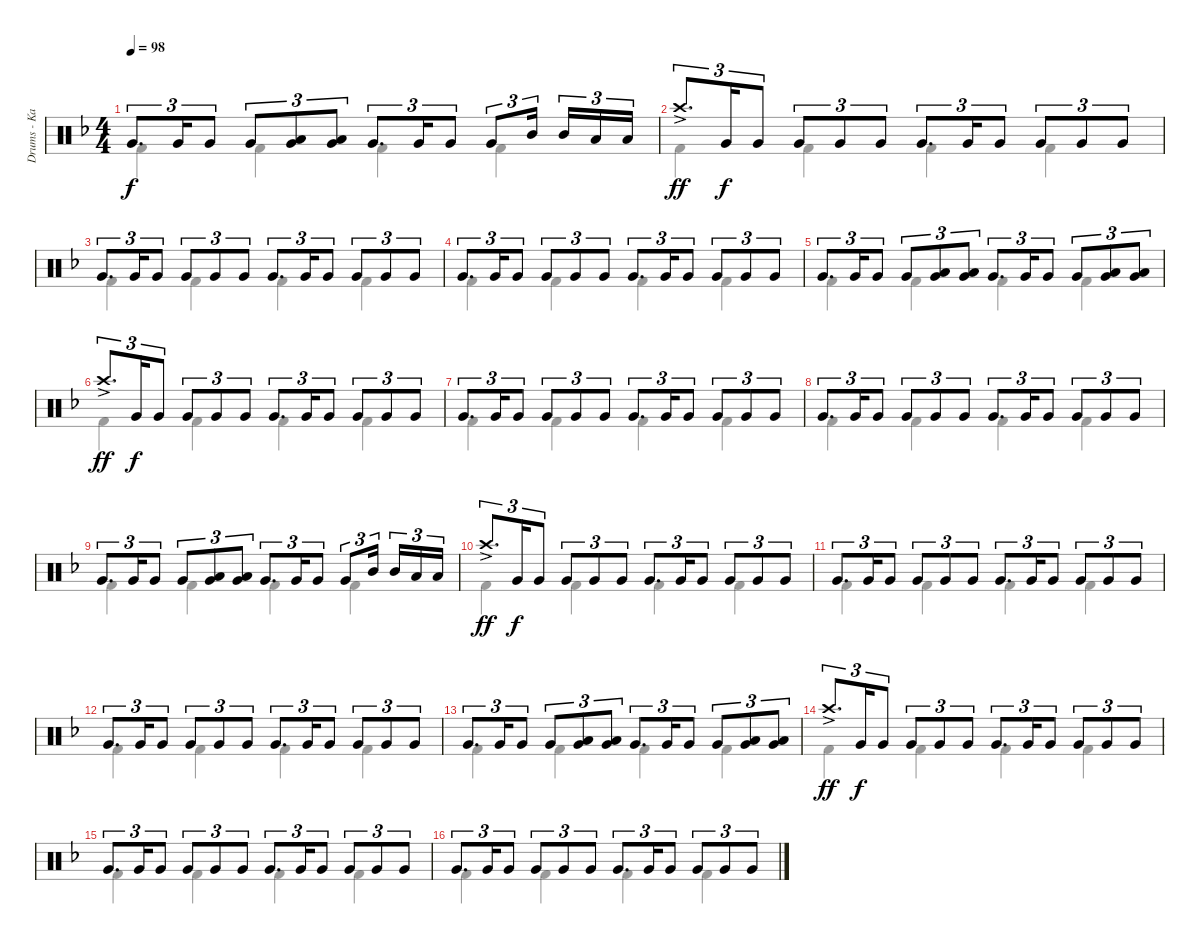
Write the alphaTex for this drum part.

\track ("Drums - Kai" "Drums - Ka") {instrument percussion}
\staff {score}
\articulation defaults
\voice
\ts (4 4)
\tempo 98
\clef neutral
\ks f "Very Low Tom (hit)".8{d tu (3 2) dy f} "Very Low Tom (hit)".16{tu (3 2)} "Very Low Tom (hit)".8{tu (3 2)} "Very Low Tom (hit)".8{tu (3 2)}
("Very Low Tom (hit)" "Low Floor Tom (hit)").8{tu (3 2)} ("Very Low Tom (hit)" "Low Floor Tom (hit)").8{tu (3 2)} "Very Low Tom (hit)".8{d tu (3 2)} "Very Low Tom (hit)".16{tu (3 2)} "Very Low Tom (hit)".8{tu (3 2)} "Very Low Tom (hit)".8{tu (3 2)} "Mid Tom (hit)".16{tu (3 2) beam splitsecondary} "Mid Tom (hit)".16{tu (3 2)} "Low Tom (hit)".16{tu (3 2)} "Low Tom (hit)".16{tu (3 2)} |
"Crash high (hit)"{ac}.8{d tu (3 2) dy ff} "Very Low Tom (hit)".16{tu (3 2) dy f} "Very Low Tom (hit)".8{tu (3 2)} "Very Low Tom (hit)".8{tu (3 2)} "Very Low Tom (hit)".8{tu (3 2)} "Very Low Tom (hit)".8{tu (3 2)} "Very Low Tom (hit)".8{d tu (3 2)} "Very Low Tom (hit)".16{tu (3 2)} "Very Low Tom (hit)".8{tu (3 2)} "Very Low Tom (hit)".8{tu (3 2)} "Very Low Tom (hit)".8{tu (3 2)} "Very Low Tom (hit)".8{tu (3 2)} |
"Very Low Tom (hit)".8{d tu (3 2)} "Very Low Tom (hit)".16{tu (3 2)} "Very Low Tom (hit)".8{tu (3 2)} "Very Low Tom (hit)".8{tu (3 2)} "Very Low Tom (hit)".8{tu (3 2)} "Very Low Tom (hit)".8{tu (3 2)} "Very Low Tom (hit)".8{d tu (3 2)} "Very Low Tom (hit)".16{tu (3 2)} "Very Low Tom (hit)".8{tu (3 2)} "Very Low Tom (hit)".8{tu (3 2)} "Very Low Tom (hit)".8{tu (3 2)} "Very Low Tom (hit)".8{tu (3 2)} |
"Very Low Tom (hit)".8{d tu (3 2)} "Very Low Tom (hit)".16{tu (3 2)} "Very Low Tom (hit)".8{tu (3 2)} "Very Low Tom (hit)".8{tu (3 2)} "Very Low Tom (hit)".8{tu (3 2)} "Very Low Tom (hit)".8{tu (3 2)} "Very Low Tom (hit)".8{d tu (3 2)} "Very Low Tom (hit)".16{tu (3 2)} "Very Low Tom (hit)".8{tu (3 2)} "Very Low Tom (hit)".8{tu (3 2)} "Very Low Tom (hit)".8{tu (3 2)} "Very Low Tom (hit)".8{tu (3 2)} |
"Very Low Tom (hit)".8{d tu (3 2)} "Very Low Tom (hit)".16{tu (3 2)} "Very Low Tom (hit)".8{tu (3 2)} "Very Low Tom (hit)".8{tu (3 2)} ("Very Low Tom (hit)" "Low Floor Tom (hit)").8{tu (3 2)} ("Very Low Tom (hit)" "Low Floor Tom (hit)").8{tu (3 2)} "Very Low Tom (hit)".8{d tu (3 2)} "Very Low Tom (hit)".16{tu (3 2)} "Very Low Tom (hit)".8{tu (3 2)} "Very Low Tom (hit)".8{tu (3 2)} ("Low Tom (hit)" "Very Low Tom (hit)").8{tu (3 2)} ("Low Tom (hit)" "Very Low Tom (hit)").8{tu (3 2)} |
"Crash high (hit)"{ac}.8{d tu (3 2) dy ff} "Very Low Tom (hit)".16{tu (3 2) dy f} "Very Low Tom (hit)".8{tu (3 2)} "Very Low Tom (hit)".8{tu (3 2)} "Very Low Tom (hit)".8{tu (3 2)} "Very Low Tom (hit)".8{tu (3 2)} "Very Low Tom (hit)".8{d tu (3 2)} "Very Low Tom (hit)".16{tu (3 2)} "Very Low Tom (hit)".8{tu (3 2)} "Very Low Tom (hit)".8{tu (3 2)} "Very Low Tom (hit)".8{tu (3 2)} "Very Low Tom (hit)".8{tu (3 2)} |
"Very Low Tom (hit)".8{d tu (3 2)} "Very Low Tom (hit)".16{tu (3 2)} "Very Low Tom (hit)".8{tu (3 2)} "Very Low Tom (hit)".8{tu (3 2)} "Very Low Tom (hit)".8{tu (3 2)} "Very Low Tom (hit)".8{tu (3 2)} "Very Low Tom (hit)".8{d tu (3 2)} "Very Low Tom (hit)".16{tu (3 2)} "Very Low Tom (hit)".8{tu (3 2)} "Very Low Tom (hit)".8{tu (3 2)} "Very Low Tom (hit)".8{tu (3 2)} "Very Low Tom (hit)".8{tu (3 2)} |
"Very Low Tom (hit)".8{d tu (3 2)} "Very Low Tom (hit)".16{tu (3 2)} "Very Low Tom (hit)".8{tu (3 2)} "Very Low Tom (hit)".8{tu (3 2)} "Very Low Tom (hit)".8{tu (3 2)} "Very Low Tom (hit)".8{tu (3 2)} "Very Low Tom (hit)".8{d tu (3 2)} "Very Low Tom (hit)".16{tu (3 2)} "Very Low Tom (hit)".8{tu (3 2)} "Very Low Tom (hit)".8{tu (3 2)} "Very Low Tom (hit)".8{tu (3 2)} "Very Low Tom (hit)".8{tu (3 2)} |
"Very Low Tom (hit)".8{d tu (3 2)} "Very Low Tom (hit)".16{tu (3 2)} "Very Low Tom (hit)".8{tu (3 2)} "Very Low Tom (hit)".8{tu (3 2)} ("Very Low Tom (hit)" "Low Floor Tom (hit)").8{tu (3 2)} ("Very Low Tom (hit)" "Low Floor Tom (hit)").8{tu (3 2)} "Very Low Tom (hit)".8{d tu (3 2)} "Very Low Tom (hit)".16{tu (3 2)} "Very Low Tom (hit)".8{tu (3 2)} "Very Low Tom (hit)".8{tu (3 2)} "Mid Tom (hit)".16{tu (3 2) beam splitsecondary} "Mid Tom (hit)".16{tu (3 2)} "Low Tom (hit)".16{tu (3 2)} "Low Tom (hit)".16{tu (3 2)} |
"Crash high (hit)"{ac}.8{d tu (3 2) dy ff} "Very Low Tom (hit)".16{tu (3 2) dy f} "Very Low Tom (hit)".8{tu (3 2)} "Very Low Tom (hit)".8{tu (3 2)} "Very Low Tom (hit)".8{tu (3 2)} "Very Low Tom (hit)".8{tu (3 2)} "Very Low Tom (hit)".8{d tu (3 2)} "Very Low Tom (hit)".16{tu (3 2)} "Very Low Tom (hit)".8{tu (3 2)} "Very Low Tom (hit)".8{tu (3 2)} "Very Low Tom (hit)".8{tu (3 2)} "Very Low Tom (hit)".8{tu (3 2)} |
"Very Low Tom (hit)".8{d tu (3 2)} "Very Low Tom (hit)".16{tu (3 2)} "Very Low Tom (hit)".8{tu (3 2)} "Very Low Tom (hit)".8{tu (3 2)} "Very Low Tom (hit)".8{tu (3 2)} "Very Low Tom (hit)".8{tu (3 2)} "Very Low Tom (hit)".8{d tu (3 2)} "Very Low Tom (hit)".16{tu (3 2)} "Very Low Tom (hit)".8{tu (3 2)} "Very Low Tom (hit)".8{tu (3 2)} "Very Low Tom (hit)".8{tu (3 2)} "Very Low Tom (hit)".8{tu (3 2)} |
"Very Low Tom (hit)".8{d tu (3 2)} "Very Low Tom (hit)".16{tu (3 2)} "Very Low Tom (hit)".8{tu (3 2)} "Very Low Tom (hit)".8{tu (3 2)} "Very Low Tom (hit)".8{tu (3 2)} "Very Low Tom (hit)".8{tu (3 2)} "Very Low Tom (hit)".8{d tu (3 2)} "Very Low Tom (hit)".16{tu (3 2)} "Very Low Tom (hit)".8{tu (3 2)} "Very Low Tom (hit)".8{tu (3 2)} "Very Low Tom (hit)".8{tu (3 2)} "Very Low Tom (hit)".8{tu (3 2)} |
"Very Low Tom (hit)".8{d tu (3 2)} "Very Low Tom (hit)".16{tu (3 2)} "Very Low Tom (hit)".8{tu (3 2)} "Very Low Tom (hit)".8{tu (3 2)} ("Very Low Tom (hit)" "Low Floor Tom (hit)").8{tu (3 2)} ("Very Low Tom (hit)" "Low Floor Tom (hit)").8{tu (3 2)} "Very Low Tom (hit)".8{d tu (3 2)} "Very Low Tom (hit)".16{tu (3 2)} "Very Low Tom (hit)".8{tu (3 2)} "Very Low Tom (hit)".8{tu (3 2)} ("Low Tom (hit)" "Very Low Tom (hit)").8{tu (3 2)} ("Low Tom (hit)" "Very Low Tom (hit)").8{tu (3 2)} |
"Crash high (hit)"{ac}.8{d tu (3 2) dy ff} "Very Low Tom (hit)".16{tu (3 2) dy f} "Very Low Tom (hit)".8{tu (3 2)} "Very Low Tom (hit)".8{tu (3 2)} "Very Low Tom (hit)".8{tu (3 2)} "Very Low Tom (hit)".8{tu (3 2)} "Very Low Tom (hit)".8{d tu (3 2)} "Very Low Tom (hit)".16{tu (3 2)} "Very Low Tom (hit)".8{tu (3 2)} "Very Low Tom (hit)".8{tu (3 2)} "Very Low Tom (hit)".8{tu (3 2)} "Very Low Tom (hit)".8{tu (3 2)} |
"Very Low Tom (hit)".8{d tu (3 2)} "Very Low Tom (hit)".16{tu (3 2)} "Very Low Tom (hit)".8{tu (3 2)} "Very Low Tom (hit)".8{tu (3 2)} "Very Low Tom (hit)".8{tu (3 2)} "Very Low Tom (hit)".8{tu (3 2)} "Very Low Tom (hit)".8{d tu (3 2)} "Very Low Tom (hit)".16{tu (3 2)} "Very Low Tom (hit)".8{tu (3 2)} "Very Low Tom (hit)".8{tu (3 2)} "Very Low Tom (hit)".8{tu (3 2)} "Very Low Tom (hit)".8{tu (3 2)} |
"Very Low Tom (hit)".8{d tu (3 2)} "Very Low Tom (hit)".16{tu (3 2)} "Very Low Tom (hit)".8{tu (3 2)} "Very Low Tom (hit)".8{tu (3 2)} "Very Low Tom (hit)".8{tu (3 2)} "Very Low Tom (hit)".8{tu (3 2)} "Very Low Tom (hit)".8{d tu (3 2)} "Very Low Tom (hit)".16{tu (3 2)} "Very Low Tom (hit)".8{tu (3 2)} "Very Low Tom (hit)".8{tu (3 2)} "Very Low Tom (hit)".8{tu (3 2)} "Very Low Tom (hit)".8{tu (3 2)}
\voice
\clef neutral
\ottava regular
\simile none
\ks f "Kick (hit) 2".4{dy f} "Kick (hit) 2".4 "Kick (hit) 2".4 "Kick (hit) 2".4
|
"Kick (hit) 2".4 "Kick (hit) 2".4 "Kick (hit) 2".4 "Kick (hit) 2".4 |
"Kick (hit) 2".4 "Kick (hit) 2".4 "Kick (hit) 2".4 "Kick (hit) 2".4 |
"Kick (hit) 2".4 "Kick (hit) 2".4 "Kick (hit) 2".4 "Kick (hit) 2".4 |
"Kick (hit) 2".4 "Kick (hit) 2".4 "Kick (hit) 2".4 "Kick (hit) 2".4 |
"Kick (hit) 2".4 "Kick (hit) 2".4 "Kick (hit) 2".4 "Kick (hit) 2".4 |
"Kick (hit) 2".4 "Kick (hit) 2".4 "Kick (hit) 2".4 "Kick (hit) 2".4 |
"Kick (hit) 2".4 "Kick (hit) 2".4 "Kick (hit) 2".4 "Kick (hit) 2".4 |
"Kick (hit) 2".4 "Kick (hit) 2".4 "Kick (hit) 2".4 "Kick (hit) 2".4 |
"Kick (hit) 2".4 "Kick (hit) 2".4 "Kick (hit) 2".4 "Kick (hit) 2".4 |
"Kick (hit) 2".4 "Kick (hit) 2".4 "Kick (hit) 2".4 "Kick (hit) 2".4 |
"Kick (hit) 2".4 "Kick (hit) 2".4 "Kick (hit) 2".4 "Kick (hit) 2".4 |
"Kick (hit) 2".4 "Kick (hit) 2".4 "Kick (hit) 2".4 "Kick (hit) 2".4 |
"Kick (hit) 2".4 "Kick (hit) 2".4 "Kick (hit) 2".4 "Kick (hit) 2".4 |
"Kick (hit) 2".4 "Kick (hit) 2".4 "Kick (hit) 2".4 "Kick (hit) 2".4 |
"Kick (hit) 2".4 "Kick (hit) 2".4 "Kick (hit) 2".4 "Kick (hit) 2".4
